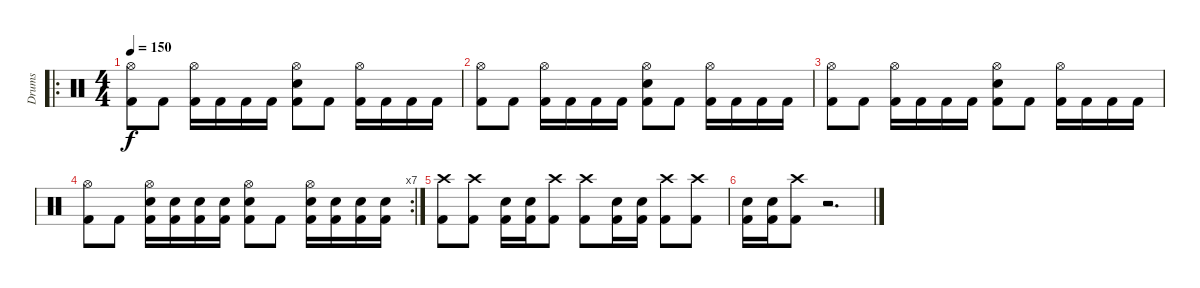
\track ("Drums" "Drums") {instrument percussion}
\staff {score}
\articulation defaults
\ro
\ts (4 4)
\tempo 150
\clef neutral
\ks c
("Hi-Hat (open)" "Kick (hit) 2").8{dy f} "Kick (hit) 2".8 ("Hi-Hat (open)" "Kick (hit) 2").16 "Kick (hit) 2".16 "Kick (hit) 2".16 "Kick (hit) 2".16 ("Hi-Hat (open)" "Snare (hit) 2" "Kick (hit) 2").8 "Kick (hit) 2".8 ("Hi-Hat (open)" "Kick (hit) 2").16 "Kick (hit) 2".16 "Kick (hit) 2".16 "Kick (hit) 2".16 |
("Hi-Hat (open)" "Kick (hit) 2").8 "Kick (hit) 2".8 ("Hi-Hat (open)" "Kick (hit) 2").16 "Kick (hit) 2".16 "Kick (hit) 2".16 "Kick (hit) 2".16 ("Hi-Hat (open)" "Snare (hit) 2" "Kick (hit) 2").8 "Kick (hit) 2".8 ("Hi-Hat (open)" "Kick (hit) 2").16 "Kick (hit) 2".16 "Kick (hit) 2".16 "Kick (hit) 2".16 |
("Hi-Hat (open)" "Kick (hit) 2").8 "Kick (hit) 2".8 ("Hi-Hat (open)" "Kick (hit) 2").16 "Kick (hit) 2".16 "Kick (hit) 2".16 "Kick (hit) 2".16 ("Hi-Hat (open)" "Snare (hit) 2" "Kick (hit) 2").8 "Kick (hit) 2".8 ("Hi-Hat (open)" "Kick (hit) 2").16 "Kick (hit) 2".16 "Kick (hit) 2".16 "Kick (hit) 2".16 |
\rc 7
("Hi-Hat (open)" "Kick (hit) 2").8 "Kick (hit) 2".8 ("Hi-Hat (open)" "Snare (hit) 2" "Kick (hit) 2").16 ("Snare (hit) 2" "Kick (hit) 2").16 ("Snare (hit) 2" "Kick (hit) 2").16 ("Snare (hit) 2" "Kick (hit) 2").16 ("Hi-Hat (open)" "Snare (hit) 2" "Kick (hit) 2").8 "Kick (hit) 2".8 ("Hi-Hat (open)" "Snare (hit) 2" "Kick (hit) 2").16 ("Snare (hit) 2" "Kick (hit) 2").16 ("Snare (hit) 2" "Kick (hit) 2").16 ("Snare (hit) 2" "Kick (hit) 2").16 |
("Crash high (hit)" "Kick (hit) 2").8 ("Crash high (hit)" "Kick (hit) 2").8 ("Snare (hit) 2" "Kick (hit) 2").16 ("Snare (hit) 2" "Kick (hit) 2").16 ("Crash high (hit)" "Kick (hit) 2").8 ("Crash high (hit)" "Kick (hit) 2").8 ("Snare (hit) 2" "Kick (hit) 2").16 ("Snare (hit) 2" "Kick (hit) 2").16 ("Crash high (hit)" "Kick (hit) 2").8 ("Crash high (hit)" "Kick (hit) 2").8 |
("Snare (hit) 2" "Kick (hit) 2").16 ("Snare (hit) 2" "Kick (hit) 2").16 ("Crash high (hit)" "Kick (hit) 2").8 r.2{d}
